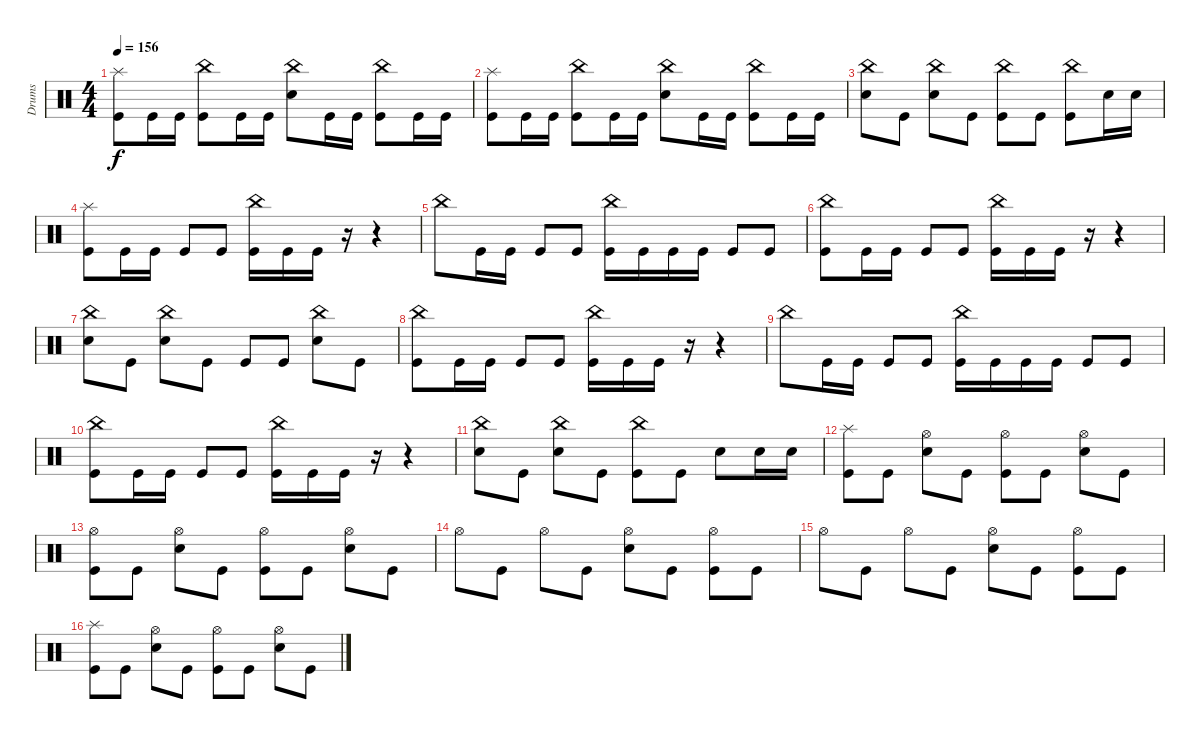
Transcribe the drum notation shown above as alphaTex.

\track ("Drums" "Drums") {instrument percussion}
\staff {score}
\articulation defaults
\ts (4 4)
\tempo 156
\clef neutral
\ks c
("Kick (hit)" "Splash (hit)").8{dy f} "Kick (hit)".16 "Kick (hit)".16 ("China (hit)" "Kick (hit)").8 "Kick (hit)".16 "Kick (hit)".16 ("China (hit)" "Snare (hit) 2").8 "Kick (hit)".16 "Kick (hit)".16 ("China (hit)" "Kick (hit)").8 "Kick (hit)".16 "Kick (hit)".16 |
("Kick (hit)" "Splash (hit)").8 "Kick (hit)".16 "Kick (hit)".16 ("China (hit)" "Kick (hit)").8 "Kick (hit)".16 "Kick (hit)".16 ("China (hit)" "Snare (hit) 2").8 "Kick (hit)".16 "Kick (hit)".16 ("China (hit)" "Kick (hit)").8 "Kick (hit)".16 "Kick (hit)".16 |
("China (hit)" "Snare (hit) 2").8 "Kick (hit)".8 ("China (hit)" "Snare (hit) 2").8 "Kick (hit)".8 ("China (hit)" "Kick (hit)").8 "Kick (hit)".8 ("China (hit)" "Kick (hit)").8 "Snare (hit) 2".16 "Snare (hit) 2".16 |
("Kick (hit)" "Splash (hit)").8 "Kick (hit)".16 "Kick (hit)".16 "Kick (hit)".8 "Kick (hit)".8 ("China (hit)" "Kick (hit)").16 "Kick (hit)".16 "Kick (hit)".16 r.16 r.4 |
"China (hit)".8 "Kick (hit)".16 "Kick (hit)".16 "Kick (hit)".8 "Kick (hit)".8 ("China (hit)" "Kick (hit)").16 "Kick (hit)".16 "Kick (hit)".16 "Kick (hit)".16 "Kick (hit)".8 "Kick (hit)".8 |
("China (hit)" "Kick (hit)").8 "Kick (hit)".16 "Kick (hit)".16 "Kick (hit)".8 "Kick (hit)".8 ("China (hit)" "Kick (hit)").16 "Kick (hit)".16 "Kick (hit)".16 r.16 r.4 |
("China (hit)" "Snare (hit) 2").8 "Kick (hit)".8 ("China (hit)" "Snare (hit) 2").8 "Kick (hit)".8 "Kick (hit)".8 "Kick (hit)".8 ("China (hit)" "Snare (hit) 2").8 "Kick (hit)".8 |
("China (hit)" "Kick (hit)").8 "Kick (hit)".16 "Kick (hit)".16 "Kick (hit)".8 "Kick (hit)".8 ("China (hit)" "Kick (hit)").16 "Kick (hit)".16 "Kick (hit)".16 r.16 r.4 |
"China (hit)".8 "Kick (hit)".16 "Kick (hit)".16 "Kick (hit)".8 "Kick (hit)".8 ("China (hit)" "Kick (hit)").16 "Kick (hit)".16 "Kick (hit)".16 "Kick (hit)".16 "Kick (hit)".8 "Kick (hit)".8 |
("China (hit)" "Kick (hit)").8 "Kick (hit)".16 "Kick (hit)".16 "Kick (hit)".8 "Kick (hit)".8 ("China (hit)" "Kick (hit)").16 "Kick (hit)".16 "Kick (hit)".16 r.16 r.4 |
("China (hit)" "Snare (hit) 2").8 "Kick (hit)".8 ("China (hit)" "Snare (hit) 2").8 "Kick (hit)".8 ("China (hit)" "Kick (hit)").8 "Kick (hit)".8 "Snare (hit) 2".8 "Snare (hit) 2".16 "Snare (hit) 2".16 |
("Kick (hit)" "Splash (hit)").8 "Kick (hit)".8 ("Snare (hit) 2" "Hi-Hat (open)").8 "Kick (hit)".8 ("Kick (hit)" "Hi-Hat (open)").8 "Kick (hit)".8 ("Snare (hit) 2" "Hi-Hat (open)").8 "Kick (hit)".8 |
("Kick (hit)" "Hi-Hat (open)").8 "Kick (hit)".8 ("Snare (hit) 2" "Hi-Hat (open)").8 "Kick (hit)".8 ("Kick (hit)" "Hi-Hat (open)").8 "Kick (hit)".8 ("Snare (hit) 2" "Hi-Hat (open)").8 "Kick (hit)".8 |
"Hi-Hat (open)".8 "Kick (hit)".8 "Hi-Hat (open)".8 "Kick (hit)".8 ("Snare (hit) 2" "Hi-Hat (open)").8 "Kick (hit)".8 ("Kick (hit)" "Hi-Hat (open)").8 "Kick (hit)".8 |
"Hi-Hat (open)".8 "Kick (hit)".8 "Hi-Hat (open)".8 "Kick (hit)".8 ("Snare (hit) 2" "Hi-Hat (open)").8 "Kick (hit)".8 ("Kick (hit)" "Hi-Hat (open)").8 "Kick (hit)".8 |
("Kick (hit)" "Splash (hit)").8 "Kick (hit)".8 ("Snare (hit) 2" "Hi-Hat (open)").8 "Kick (hit)".8 ("Kick (hit)" "Hi-Hat (open)").8 "Kick (hit)".8 ("Snare (hit) 2" "Hi-Hat (open)").8 "Kick (hit)".8
